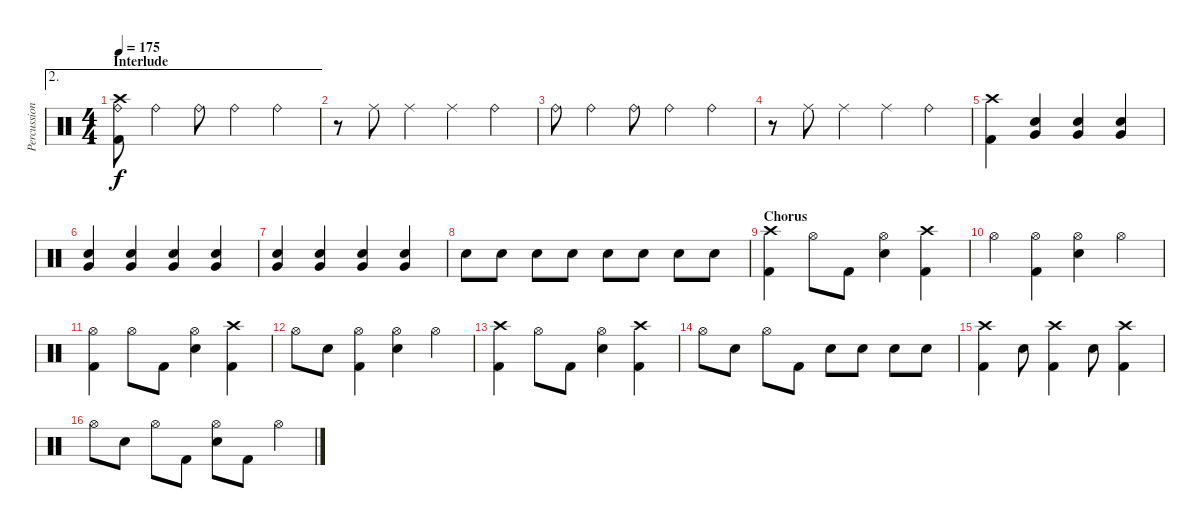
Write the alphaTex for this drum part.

\track ("Percussion" "Percussion") {instrument percussion}
\staff {score}
\articulation defaults
\ae 2
\ts (4 4)
\section ("" "Interlude")
\tempo 175
\clef neutral
\ks c
("Crash high (hit)" "Ride (bell)" "Kick (hit) 2").8{dy f} "Ride (bell)".4 "Ride (bell)".8 "Ride (bell)".4 "Ride (bell)".4 |
r.8 "Ride (middle)".8 "Ride (middle)".4 "Ride (middle)".4 "Ride (bell)".4 |
"Ride (bell)".8 "Ride (bell)".4 "Ride (bell)".8 "Ride (bell)".4 "Ride (bell)".4 |
r.8 "Ride (middle)".8 "Ride (middle)".4 "Ride (middle)".4 "Ride (bell)".4 |
("Crash high (hit)" "Kick (hit) 2").4 ("Very Low Tom (hit)" "Electric Snare (hit)").4 ("Very Low Tom (hit)" "Electric Snare (hit)").4 ("Very Low Tom (hit)" "Electric Snare (hit)").4 |
("Very Low Tom (hit)" "Electric Snare (hit)").4 ("Very Low Tom (hit)" "Electric Snare (hit)").4 ("Very Low Tom (hit)" "Electric Snare (hit)").4 ("Very Low Tom (hit)" "Electric Snare (hit)").4 |
("Very Low Tom (hit)" "Electric Snare (hit)").4 ("Very Low Tom (hit)" "Electric Snare (hit)").4 ("Very Low Tom (hit)" "Electric Snare (hit)").4 ("Very Low Tom (hit)" "Electric Snare (hit)").4 |
"Electric Snare (hit)".8 "Electric Snare (hit)".8 "Electric Snare (hit)".8 "Electric Snare (hit)".8 "Electric Snare (hit)".8 "Electric Snare (hit)".8 "Electric Snare (hit)".8 "Electric Snare (hit)".8 |
\section ("" "Chorus")
("Crash high (hit)" "Kick (hit) 2").4 "Hi-Hat (open)".8 "Kick (hit) 2".8 ("Hi-Hat (open)" "Electric Snare (hit)").4 ("Crash high (hit)" "Kick (hit) 2").4 |
"Hi-Hat (open)".4 ("Hi-Hat (open)" "Kick (hit) 2").4 ("Hi-Hat (open)" "Electric Snare (hit)").4 "Hi-Hat (open)".4 |
("Hi-Hat (open)" "Kick (hit) 2").4 "Hi-Hat (open)".8 "Kick (hit) 2".8 ("Hi-Hat (open)" "Electric Snare (hit)").4 ("Crash high (hit)" "Kick (hit) 2").4 |
"Hi-Hat (open)".8 "Electric Snare (hit)".8 ("Hi-Hat (open)" "Kick (hit) 2").4 ("Hi-Hat (open)" "Electric Snare (hit)").4 "Hi-Hat (open)".4 |
("Crash high (hit)" "Kick (hit) 2").4 "Hi-Hat (open)".8 "Kick (hit) 2".8 ("Hi-Hat (open)" "Electric Snare (hit)").4 ("Crash high (hit)" "Kick (hit) 2").4 |
"Hi-Hat (open)".8 "Electric Snare (hit)".8 "Hi-Hat (open)".8 "Kick (hit) 2".8 "Electric Snare (hit)".8 "Electric Snare (hit)".8 "Electric Snare (hit)".8 "Electric Snare (hit)".8 |
("Crash high (hit)" "Kick (hit) 2").4 "Electric Snare (hit)".8 ("Crash high (hit)" "Kick (hit) 2").4 "Electric Snare (hit)".8 ("Crash high (hit)" "Kick (hit) 2").4 |
"Hi-Hat (open)".8 "Electric Snare (hit)".8 "Hi-Hat (open)".8 "Kick (hit) 2".8 ("Hi-Hat (open)" "Electric Snare (hit)").8 "Kick (hit) 2".8 "Hi-Hat (open)".4
